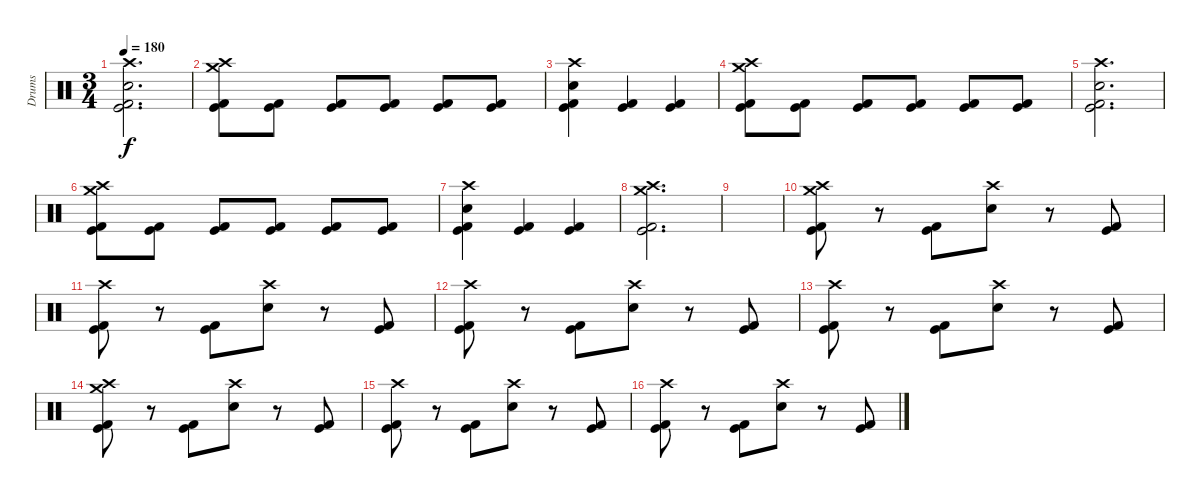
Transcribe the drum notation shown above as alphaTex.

\track ("Drums" "Drums") {instrument percussion}
\staff {score}
\articulation defaults
\ts (3 4)
\tempo 180
\clef neutral
\ks c
("Crash high (hit)" "Snare (hit) 2" "Kick (hit)" "Kick (hit) 2").2{d dy f} |
("Crash medium (hit)" "Crash high (hit)" "Kick (hit)" "Kick (hit) 2").8 ("Kick (hit)" "Kick (hit) 2").8 ("Kick (hit)" "Kick (hit) 2").8 ("Kick (hit)" "Kick (hit) 2").8 ("Kick (hit)" "Kick (hit) 2").8 ("Kick (hit)" "Kick (hit) 2").8 |
("Crash high (hit)" "Snare (hit) 2" "Kick (hit)" "Kick (hit) 2").4 ("Kick (hit)" "Kick (hit) 2").4 ("Kick (hit)" "Kick (hit) 2").4 |
("Crash medium (hit)" "Crash high (hit)" "Kick (hit)" "Kick (hit) 2").8 ("Kick (hit)" "Kick (hit) 2").8 ("Kick (hit)" "Kick (hit) 2").8 ("Kick (hit)" "Kick (hit) 2").8 ("Kick (hit)" "Kick (hit) 2").8 ("Kick (hit)" "Kick (hit) 2").8 |
("Crash high (hit)" "Snare (hit) 2" "Kick (hit)" "Kick (hit) 2").2{d} |
("Crash medium (hit)" "Crash high (hit)" "Kick (hit)" "Kick (hit) 2").8 ("Kick (hit)" "Kick (hit) 2").8 ("Kick (hit)" "Kick (hit) 2").8 ("Kick (hit)" "Kick (hit) 2").8 ("Kick (hit)" "Kick (hit) 2").8 ("Kick (hit)" "Kick (hit) 2").8 |
("Crash high (hit)" "Snare (hit) 2" "Kick (hit)" "Kick (hit) 2").4 ("Kick (hit)" "Kick (hit) 2").4 ("Kick (hit)" "Kick (hit) 2").4 |
("Crash medium (hit)" "Crash high (hit)" "Kick (hit)" "Kick (hit) 2").2{d} |
|
("Crash medium (hit)" "Crash high (hit)" "Kick (hit)" "Kick (hit) 2").8 r.8 ("Kick (hit)" "Kick (hit) 2").8 ("Crash high (hit)" "Snare (hit) 2").8 r.8 ("Kick (hit)" "Kick (hit) 2").8 |
("Crash high (hit)" "Kick (hit)" "Kick (hit) 2").8 r.8 ("Kick (hit)" "Kick (hit) 2").8 ("Crash high (hit)" "Snare (hit) 2").8 r.8 ("Kick (hit)" "Kick (hit) 2").8 |
("Crash high (hit)" "Kick (hit)" "Kick (hit) 2").8 r.8 ("Kick (hit)" "Kick (hit) 2").8 ("Crash high (hit)" "Snare (hit) 2").8 r.8 ("Kick (hit)" "Kick (hit) 2").8 |
("Crash high (hit)" "Kick (hit)" "Kick (hit) 2").8 r.8 ("Kick (hit)" "Kick (hit) 2").8 ("Crash high (hit)" "Snare (hit) 2").8 r.8 ("Kick (hit)" "Kick (hit) 2").8 |
("Crash medium (hit)" "Crash high (hit)" "Kick (hit)" "Kick (hit) 2").8 r.8 ("Kick (hit)" "Kick (hit) 2").8 ("Crash high (hit)" "Snare (hit) 2").8 r.8 ("Kick (hit)" "Kick (hit) 2").8 |
("Crash high (hit)" "Kick (hit)" "Kick (hit) 2").8 r.8 ("Kick (hit)" "Kick (hit) 2").8 ("Crash high (hit)" "Snare (hit) 2").8 r.8 ("Kick (hit)" "Kick (hit) 2").8 |
("Crash high (hit)" "Kick (hit)" "Kick (hit) 2").8 r.8 ("Kick (hit)" "Kick (hit) 2").8 ("Crash high (hit)" "Snare (hit) 2").8 r.8 ("Kick (hit)" "Kick (hit) 2").8
